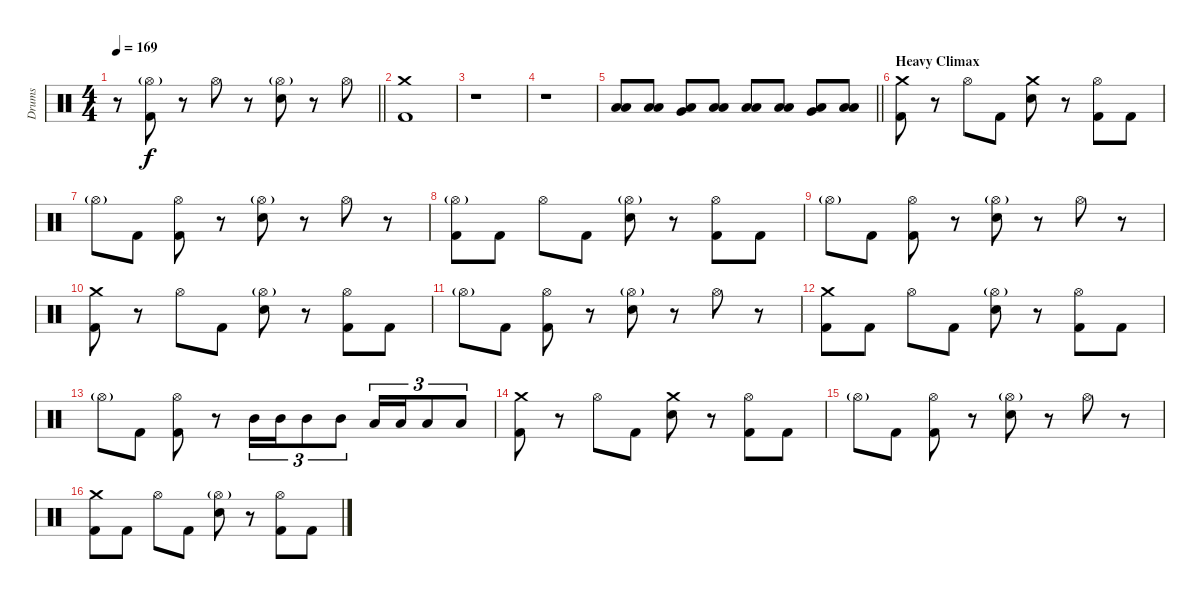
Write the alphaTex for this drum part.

\track ("Drums" "Drums") {instrument percussion}
\staff {score}
\articulation defaults
\ts (4 4)
\tempo 169
\clef neutral
\barLineRight lightlight
\ks c
r.8{dy f} ("Hi-Hat (open)"{g} "Kick (hit) 2").8 r.8 "Hi-Hat (open)".8 r.8 ("Hi-Hat (open)"{g} "Electric Snare (hit)").8 r.8 "Hi-Hat (open)".8 |
("Crash medium (hit)" "Kick (hit) 2").1 |
r.1 |
r.1 |
\barLineRight lightlight
("Low Tom (hit)" "Low Tom (hit)").8 ("Low Tom (hit)" "Low Tom (hit)").8 ("Low Tom (hit)" "Very Low Tom (hit)").8 ("Low Tom (hit)" "Low Tom (hit)").8 ("Low Tom (hit)" "Low Tom (hit)").8 ("Low Tom (hit)" "Low Tom (hit)").8 ("Low Tom (hit)" "Very Low Tom (hit)").8 ("Low Tom (hit)" "Low Tom (hit)").8 |
\section ("" "Heavy Climax ")
("Crash medium (hit)" "Kick (hit) 2").8 r.8 "Hi-Hat (open)".8 "Kick (hit) 2".8 ("Crash medium (hit)" "Electric Snare (hit)").8 r.8 ("Hi-Hat (open)" "Kick (hit) 2").8 "Kick (hit) 2".8 |
"Hi-Hat (open)"{g}.8 "Kick (hit) 2".8 ("Hi-Hat (open)" "Kick (hit) 2").8 r.8 ("Hi-Hat (open)"{g} "Electric Snare (hit)").8 r.8 "Hi-Hat (open)".8 r.8 |
("Hi-Hat (open)"{g} "Kick (hit) 2").8 "Kick (hit) 2".8 "Hi-Hat (open)".8 "Kick (hit) 2".8 ("Hi-Hat (open)"{g} "Electric Snare (hit)").8 r.8 ("Hi-Hat (open)" "Kick (hit) 2").8 "Kick (hit) 2".8 |
"Hi-Hat (open)"{g}.8 "Kick (hit) 2".8 ("Hi-Hat (open)" "Kick (hit) 2").8 r.8 ("Hi-Hat (open)"{g} "Electric Snare (hit)").8 r.8 "Hi-Hat (open)".8 r.8 |
("Crash medium (hit)" "Kick (hit) 2").8 r.8 "Hi-Hat (open)".8 "Kick (hit) 2".8 ("Hi-Hat (open)"{g} "Electric Snare (hit)").8 r.8 ("Hi-Hat (open)" "Kick (hit) 2").8 "Kick (hit) 2".8 |
"Hi-Hat (open)"{g}.8 "Kick (hit) 2".8 ("Hi-Hat (open)" "Kick (hit) 2").8 r.8 ("Hi-Hat (open)"{g} "Electric Snare (hit)").8 r.8 "Hi-Hat (open)".8 r.8 |
("Crash medium (hit)" "Kick (hit) 2").8 "Kick (hit) 2".8 "Hi-Hat (open)".8 "Kick (hit) 2".8 ("Hi-Hat (open)"{g} "Electric Snare (hit)").8 r.8 ("Hi-Hat (open)" "Kick (hit) 2").8 "Kick (hit) 2".8 |
"Hi-Hat (open)"{g}.8 "Kick (hit) 2".8 ("Hi-Hat (open)" "Kick (hit) 2").8 r.8 "Mid Tom (hit)".16{tu (3 2)} "Mid Tom (hit)".16{tu (3 2)} "Mid Tom (hit)".8{tu (3 2)} "Mid Tom (hit)".8{tu (3 2)} "Low Tom (hit)".16{tu (3 2)} "Low Tom (hit)".16{tu (3 2)} "Low Tom (hit)".8{tu (3 2)} "Low Tom (hit)".8{tu (3 2)} |
("Crash medium (hit)" "Kick (hit) 2").8 r.8 "Hi-Hat (open)".8 "Kick (hit) 2".8 ("Crash medium (hit)" "Electric Snare (hit)").8 r.8 ("Hi-Hat (open)" "Kick (hit) 2").8 "Kick (hit) 2".8 |
"Hi-Hat (open)"{g}.8 "Kick (hit) 2".8 ("Hi-Hat (open)" "Kick (hit) 2").8 r.8 ("Hi-Hat (open)"{g} "Electric Snare (hit)").8 r.8 "Hi-Hat (open)".8 r.8 |
("Crash medium (hit)" "Kick (hit) 2").8 "Kick (hit) 2".8 "Hi-Hat (open)".8 "Kick (hit) 2".8 ("Hi-Hat (open)"{g} "Electric Snare (hit)").8 r.8 ("Hi-Hat (open)" "Kick (hit) 2").8 "Kick (hit) 2".8
